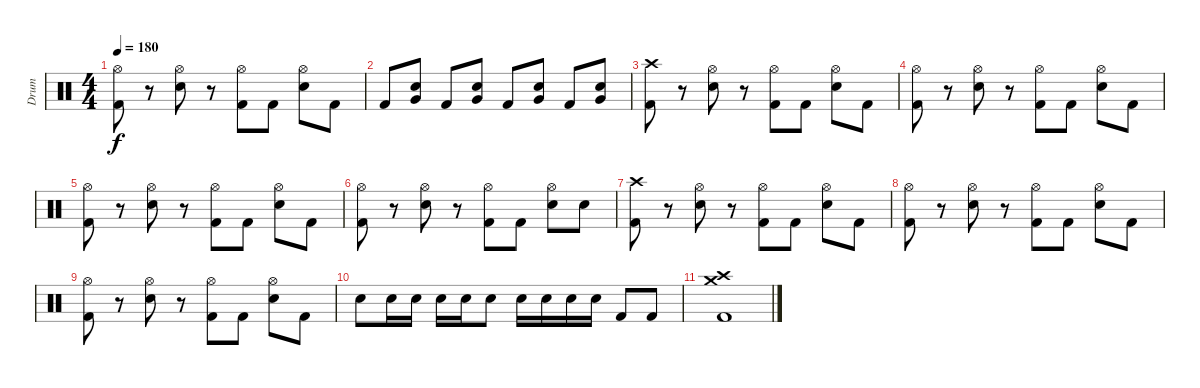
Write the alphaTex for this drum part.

\track ("Drum" "Drum") {instrument percussion}
\staff {score}
\articulation defaults
\ts (4 4)
\tempo 180
\clef neutral
\ks c
("Hi-Hat (open)" "Kick (hit) 2").8{dy f} r.8 ("Hi-Hat (open)" "Electric Snare (hit)").8 r.8 ("Hi-Hat (open)" "Kick (hit) 2").8 "Kick (hit) 2".8 ("Hi-Hat (open)" "Electric Snare (hit)").8 "Kick (hit) 2".8 |
"Kick (hit) 2".8 ("Very Low Tom (hit)" "Electric Snare (hit)").8 "Kick (hit) 2".8 ("Very Low Tom (hit)" "Electric Snare (hit)").8 "Kick (hit) 2".8 ("Very Low Tom (hit)" "Electric Snare (hit)").8 "Kick (hit) 2".8 ("Very Low Tom (hit)" "Electric Snare (hit)").8 |
("Crash high (hit)" "Kick (hit) 2").8 r.8 ("Hi-Hat (open)" "Electric Snare (hit)").8 r.8 ("Hi-Hat (open)" "Kick (hit) 2").8 "Kick (hit) 2".8 ("Hi-Hat (open)" "Electric Snare (hit)").8 "Kick (hit) 2".8 |
("Hi-Hat (open)" "Kick (hit) 2").8 r.8 ("Hi-Hat (open)" "Electric Snare (hit)").8 r.8 ("Hi-Hat (open)" "Kick (hit) 2").8 "Kick (hit) 2".8 ("Hi-Hat (open)" "Electric Snare (hit)").8 "Kick (hit) 2".8 |
("Hi-Hat (open)" "Kick (hit) 2").8 r.8 ("Hi-Hat (open)" "Electric Snare (hit)").8 r.8 ("Hi-Hat (open)" "Kick (hit) 2").8 "Kick (hit) 2".8 ("Hi-Hat (open)" "Electric Snare (hit)").8 "Kick (hit) 2".8 |
("Hi-Hat (open)" "Kick (hit) 2").8 r.8 ("Hi-Hat (open)" "Electric Snare (hit)").8 r.8 ("Hi-Hat (open)" "Kick (hit) 2").8 "Kick (hit) 2".8 ("Hi-Hat (open)" "Electric Snare (hit)").8 "Electric Snare (hit)".8 |
("Crash high (hit)" "Kick (hit) 2").8 r.8 ("Hi-Hat (open)" "Electric Snare (hit)").8 r.8 ("Hi-Hat (open)" "Kick (hit) 2").8 "Kick (hit) 2".8 ("Hi-Hat (open)" "Electric Snare (hit)").8 "Kick (hit) 2".8 |
("Hi-Hat (open)" "Kick (hit) 2").8 r.8 ("Hi-Hat (open)" "Electric Snare (hit)").8 r.8 ("Hi-Hat (open)" "Kick (hit) 2").8 "Kick (hit) 2".8 ("Hi-Hat (open)" "Electric Snare (hit)").8 "Kick (hit) 2".8 |
("Hi-Hat (open)" "Kick (hit) 2").8 r.8 ("Hi-Hat (open)" "Electric Snare (hit)").8 r.8 ("Hi-Hat (open)" "Kick (hit) 2").8 "Kick (hit) 2".8 ("Hi-Hat (open)" "Electric Snare (hit)").8 "Kick (hit) 2".8 |
"Electric Snare (hit)".8 "Electric Snare (hit)".16 "Electric Snare (hit)".16 "Electric Snare (hit)".16 "Electric Snare (hit)".16 "Electric Snare (hit)".8 "Electric Snare (hit)".16 "Electric Snare (hit)".16 "Electric Snare (hit)".16 "Electric Snare (hit)".16 "Kick (hit) 2".8 "Kick (hit) 2".8 |
("Crash high (hit)" "Crash medium (hit)" "Kick (hit) 2").1
